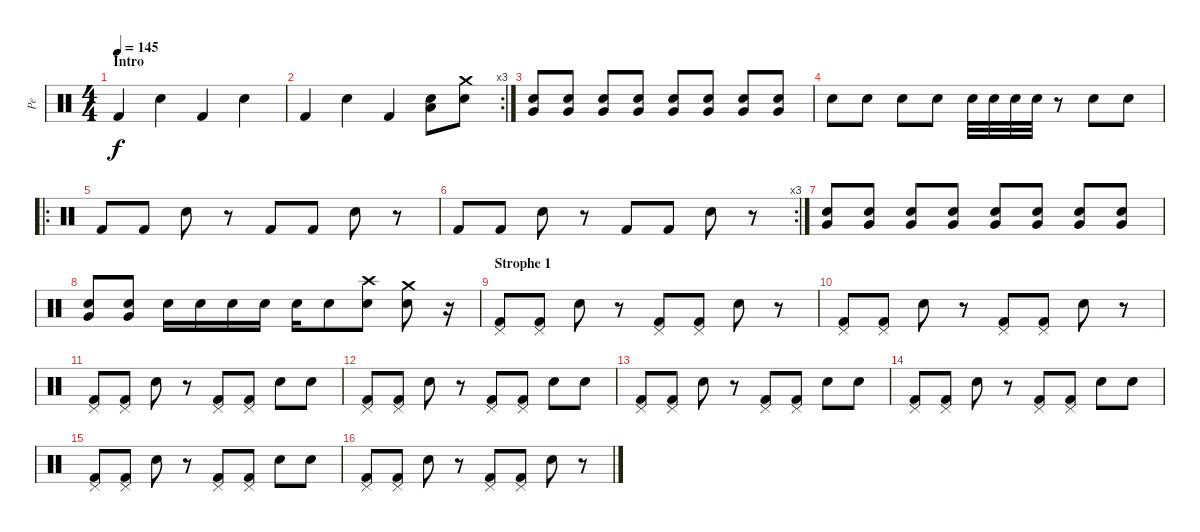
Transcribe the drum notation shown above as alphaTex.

\track ("Pe" "Pe") {instrument percussion}
\staff {score}
\articulation defaults
\ts (4 4)
\section ("" "Intro")
\tempo 145
\clef neutral
\ks c "Kick (hit) 2".4{dy f} "Snare (hit) 2".4 "Kick (hit) 2".4 "Snare (hit) 2".4
|
\rc 3 "Kick (hit) 2".4 "Snare (hit) 2".4 "Kick (hit) 2".4
("Snare (hit) 2" "Low Floor Tom (hit)").8 ("Crash medium (hit)" "Snare (hit) 2").8 |
\section ("" "")
("Snare (hit) 2" "Very Low Tom (hit)").8 ("Snare (hit) 2" "Very Low Tom (hit)").8 ("Snare (hit) 2" "Very Low Tom (hit)").8 ("Snare (hit) 2" "Very Low Tom (hit)").8 ("Snare (hit) 2" "Very Low Tom (hit)").8 ("Snare (hit) 2" "Very Low Tom (hit)").8 ("Snare (hit) 2" "Very Low Tom (hit)").8 ("Snare (hit) 2" "Very Low Tom (hit)").8 |
"Electric Snare (hit)".8 "Electric Snare (hit)".8 "Electric Snare (hit)".8 "Electric Snare (hit)".8 "Electric Snare (hit)".32 "Electric Snare (hit)".32 "Electric Snare (hit)".32 "Electric Snare (hit)".32 r.8 "Snare (hit) 2".8 "Snare (hit) 2".8 |
\ro "Kick (hit) 2".8 "Kick (hit) 2".8 "Electric Snare (hit)".8
r.8 "Kick (hit) 2".8 "Kick (hit) 2".8 "Electric Snare (hit)".8 r.8 |
\rc 3 "Kick (hit) 2".8 "Kick (hit) 2".8 "Electric Snare (hit)".8
r.8 "Kick (hit) 2".8 "Kick (hit) 2".8 "Electric Snare (hit)".8 r.8 |
("Snare (hit) 2" "Very Low Tom (hit)").8 ("Snare (hit) 2" "Very Low Tom (hit)").8 ("Snare (hit) 2" "Very Low Tom (hit)").8 ("Snare (hit) 2" "Very Low Tom (hit)").8 ("Snare (hit) 2" "Very Low Tom (hit)").8 ("Snare (hit) 2" "Very Low Tom (hit)").8 ("Snare (hit) 2" "Very Low Tom (hit)").8 ("Snare (hit) 2" "Very Low Tom (hit)").8 |
("Snare (hit) 2" "Very Low Tom (hit)").8 ("Snare (hit) 2" "Very Low Tom (hit)").8 "Electric Snare (hit)".16 "Electric Snare (hit)".16 "Electric Snare (hit)".16 "Electric Snare (hit)".16 "Electric Snare (hit)".16 "Electric Snare (hit)".8 ("Crash high (hit)" "Snare (hit) 2").8 ("Crash medium (hit)" "Snare (hit) 2").8 r.16 |
\section ("" "Strophe 1")
("Pedal Hi-Hat (hit)" "Kick (hit) 2").8 ("Pedal Hi-Hat (hit)" "Kick (hit) 2").8 "Electric Snare (hit)".8 r.8 ("Pedal Hi-Hat (hit)" "Kick (hit) 2").8 ("Pedal Hi-Hat (hit)" "Kick (hit) 2").8 "Electric Snare (hit)".8 r.8 |
("Pedal Hi-Hat (hit)" "Kick (hit) 2").8 ("Pedal Hi-Hat (hit)" "Kick (hit) 2").8 "Electric Snare (hit)".8 r.8 ("Pedal Hi-Hat (hit)" "Kick (hit) 2").8 ("Pedal Hi-Hat (hit)" "Kick (hit) 2").8 "Electric Snare (hit)".8 r.8 |
("Pedal Hi-Hat (hit)" "Kick (hit) 2").8 ("Pedal Hi-Hat (hit)" "Kick (hit) 2").8 "Electric Snare (hit)".8 r.8 ("Pedal Hi-Hat (hit)" "Kick (hit) 2").8 ("Pedal Hi-Hat (hit)" "Kick (hit) 2").8 "Electric Snare (hit)".8 "Electric Snare (hit)".8 |
("Pedal Hi-Hat (hit)" "Kick (hit) 2").8 ("Pedal Hi-Hat (hit)" "Kick (hit) 2").8 "Electric Snare (hit)".8 r.8 ("Pedal Hi-Hat (hit)" "Kick (hit) 2").8 ("Pedal Hi-Hat (hit)" "Kick (hit) 2").8 "Electric Snare (hit)".8 "Electric Snare (hit)".8 |
("Pedal Hi-Hat (hit)" "Kick (hit) 2").8 ("Pedal Hi-Hat (hit)" "Kick (hit) 2").8 "Electric Snare (hit)".8 r.8 ("Pedal Hi-Hat (hit)" "Kick (hit) 2").8 ("Pedal Hi-Hat (hit)" "Kick (hit) 2").8 "Electric Snare (hit)".8 "Electric Snare (hit)".8 |
("Pedal Hi-Hat (hit)" "Kick (hit) 2").8 ("Pedal Hi-Hat (hit)" "Kick (hit) 2").8 "Electric Snare (hit)".8 r.8 ("Pedal Hi-Hat (hit)" "Kick (hit) 2").8 ("Pedal Hi-Hat (hit)" "Kick (hit) 2").8 "Electric Snare (hit)".8 "Electric Snare (hit)".8 |
("Pedal Hi-Hat (hit)" "Kick (hit) 2").8 ("Pedal Hi-Hat (hit)" "Kick (hit) 2").8 "Electric Snare (hit)".8 r.8 ("Pedal Hi-Hat (hit)" "Kick (hit) 2").8 ("Pedal Hi-Hat (hit)" "Kick (hit) 2").8 "Electric Snare (hit)".8 "Electric Snare (hit)".8 |
("Pedal Hi-Hat (hit)" "Kick (hit) 2").8 ("Pedal Hi-Hat (hit)" "Kick (hit) 2").8 "Electric Snare (hit)".8 r.8 ("Pedal Hi-Hat (hit)" "Kick (hit) 2").8 ("Pedal Hi-Hat (hit)" "Kick (hit) 2").8 "Electric Snare (hit)".8 r.8
